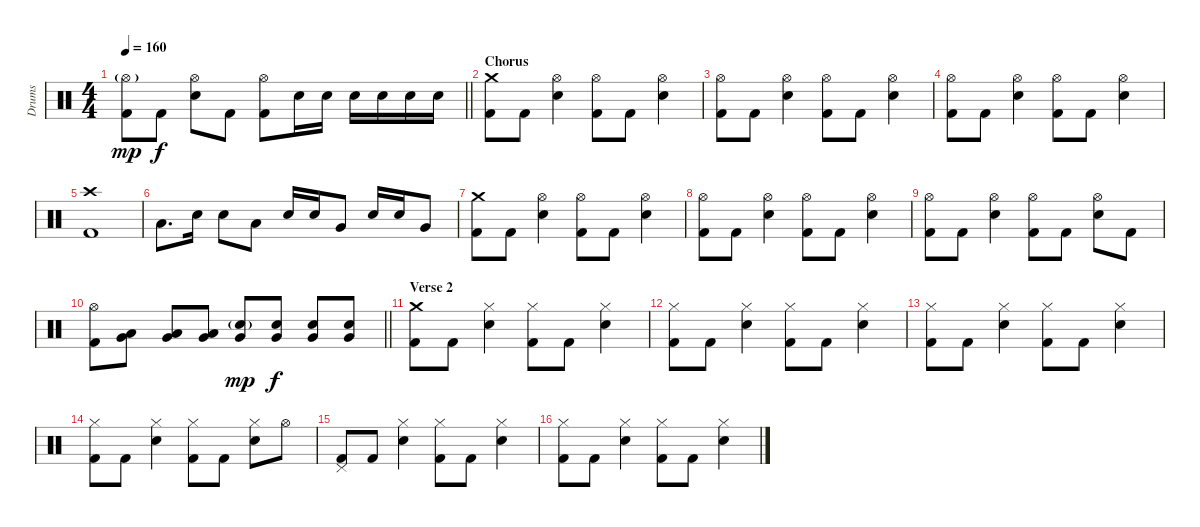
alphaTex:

\track ("Drums" "Drums") {instrument percussion}
\staff {score}
\articulation defaults
\ts (4 4)
\tempo 160
\clef neutral
\barLineRight lightlight
\ks c
("Hi-Hat (open)"{g} "Kick (hit) 2").8{dy mp} "Kick (hit) 2".8{dy f} ("Hi-Hat (open)" "Electric Snare (hit)").8 "Kick (hit) 2".8 ("Hi-Hat (open)" "Kick (hit) 2").8 "Electric Snare (hit)".16 "Electric Snare (hit)".16 "Electric Snare (hit)".16 "Electric Snare (hit)".16 "Electric Snare (hit)".16 "Electric Snare (hit)".16 |
\section ("" "Chorus")
("Crash medium (hit)" "Kick (hit) 2").8 "Kick (hit) 2".8 ("Hi-Hat (open)" "Electric Snare (hit)").4 ("Hi-Hat (open)" "Kick (hit) 2").8 "Kick (hit) 2".8 ("Hi-Hat (open)" "Electric Snare (hit)").4 |
("Hi-Hat (open)" "Kick (hit) 2").8 "Kick (hit) 2".8 ("Hi-Hat (open)" "Electric Snare (hit)").4 ("Hi-Hat (open)" "Kick (hit) 2").8 "Kick (hit) 2".8 ("Hi-Hat (open)" "Electric Snare (hit)").4 |
("Hi-Hat (open)" "Kick (hit) 2").8 "Kick (hit) 2".8 ("Hi-Hat (open)" "Electric Snare (hit)").4 ("Hi-Hat (open)" "Kick (hit) 2").8 "Kick (hit) 2".8 ("Hi-Hat (open)" "Electric Snare (hit)").4 |
("Crash high (hit)" "Kick (hit) 2").1 |
"Low Tom (hit)".8{d} "Electric Snare (hit)".16 "Electric Snare (hit)".8 "Low Tom (hit)".8 "Electric Snare (hit)".16 "Electric Snare (hit)".16 "Very Low Tom (hit)".8 "Electric Snare (hit)".16 "Electric Snare (hit)".16 "Very Low Tom (hit)".8 |
("Crash medium (hit)" "Kick (hit) 2").8 "Kick (hit) 2".8 ("Hi-Hat (open)" "Electric Snare (hit)").4 ("Hi-Hat (open)" "Kick (hit) 2").8 "Kick (hit) 2".8 ("Hi-Hat (open)" "Electric Snare (hit)").4 |
("Hi-Hat (open)" "Kick (hit) 2").8 "Kick (hit) 2".8 ("Hi-Hat (open)" "Electric Snare (hit)").4 ("Hi-Hat (open)" "Kick (hit) 2").8 "Kick (hit) 2".8 ("Hi-Hat (open)" "Electric Snare (hit)").4 |
("Hi-Hat (open)" "Kick (hit) 2").8 "Kick (hit) 2".8 ("Hi-Hat (open)" "Electric Snare (hit)").4 ("Hi-Hat (open)" "Kick (hit) 2").8 "Kick (hit) 2".8 ("Hi-Hat (open)" "Electric Snare (hit)").8 "Kick (hit) 2".8 |
\barLineRight lightlight
("Hi-Hat (open)" "Kick (hit) 2").8 ("Very Low Tom (hit)" "Low Floor Tom (hit)").8 ("Very Low Tom (hit)" "Low Floor Tom (hit)").8 ("Very Low Tom (hit)" "Low Floor Tom (hit)").8 ("Very Low Tom (hit)" "Electric Snare (hit)"{g}).8{dy mp} ("Very Low Tom (hit)" "Electric Snare (hit)").8{dy f} ("Very Low Tom (hit)" "Electric Snare (hit)").8 ("Very Low Tom (hit)" "Electric Snare (hit)").8 |
\section ("" "Verse 2")
("Crash medium (hit)" "Kick (hit) 2").8 "Kick (hit) 2".8 ("Hi-Hat (closed)" "Electric Snare (hit)").4 ("Hi-Hat (closed)" "Kick (hit) 2").8 "Kick (hit) 2".8 ("Hi-Hat (closed)" "Electric Snare (hit)").4 |
("Hi-Hat (closed)" "Kick (hit) 2").8 "Kick (hit) 2".8 ("Hi-Hat (closed)" "Electric Snare (hit)").4 ("Hi-Hat (closed)" "Kick (hit) 2").8 "Kick (hit) 2".8 ("Hi-Hat (closed)" "Electric Snare (hit)").4 |
("Hi-Hat (closed)" "Kick (hit) 2").8 "Kick (hit) 2".8 ("Hi-Hat (closed)" "Electric Snare (hit)").4 ("Hi-Hat (closed)" "Kick (hit) 2").8 "Kick (hit) 2".8 ("Hi-Hat (closed)" "Electric Snare (hit)").4 |
("Hi-Hat (closed)" "Kick (hit) 2").8 "Kick (hit) 2".8 ("Hi-Hat (closed)" "Electric Snare (hit)").4 ("Hi-Hat (closed)" "Kick (hit) 2").8 "Kick (hit) 2".8 ("Hi-Hat (closed)" "Electric Snare (hit)").8 "Hi-Hat (open)".8 |
("Pedal Hi-Hat (hit)" "Kick (hit) 2").8 "Kick (hit) 2".8 ("Hi-Hat (closed)" "Electric Snare (hit)").4 ("Hi-Hat (closed)" "Kick (hit) 2").8 "Kick (hit) 2".8 ("Hi-Hat (closed)" "Electric Snare (hit)").4 |
("Hi-Hat (closed)" "Kick (hit) 2").8 "Kick (hit) 2".8 ("Hi-Hat (closed)" "Electric Snare (hit)").4 ("Hi-Hat (closed)" "Kick (hit) 2").8 "Kick (hit) 2".8 ("Hi-Hat (closed)" "Electric Snare (hit)").4
